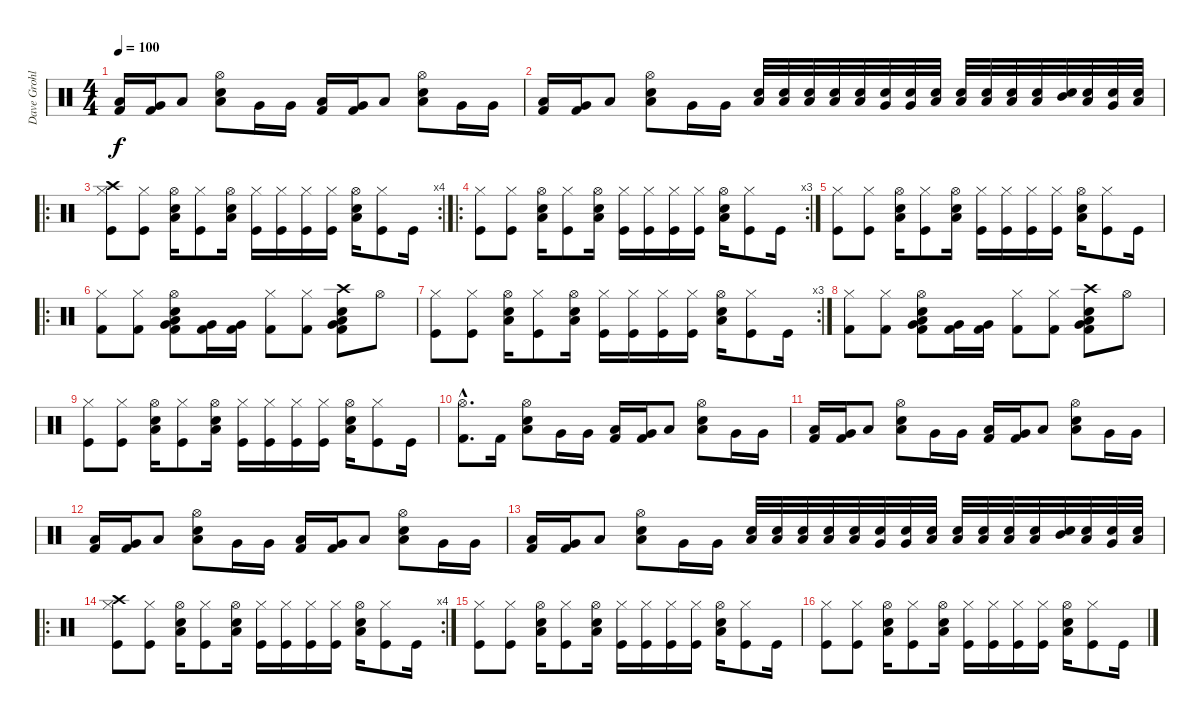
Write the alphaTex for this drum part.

\track ("Dave Grohl" "Dave Grohl") {instrument percussion}
\staff {score}
\articulation defaults
\ts (4 4)
\tempo 100
\clef neutral
\ks c
("Low Tom (hit)" "Kick (hit) 2").16{dy f} ("Very Low Tom (hit)" "Kick (hit) 2").16 "Low Floor Tom (hit)".8 ("Snare (hit) 2" "Low Tom (hit)" "Hi-Hat (open)").8 "Very Low Tom (hit)".16 "Very Low Tom (hit)".16 ("Low Tom (hit)" "Kick (hit) 2").16 ("Very Low Tom (hit)" "Kick (hit) 2").16 "Low Floor Tom (hit)".8 ("Snare (hit) 2" "Low Tom (hit)" "Hi-Hat (open)").8 "Very Low Tom (hit)".16 "Very Low Tom (hit)".16 |
("Low Tom (hit)" "Kick (hit) 2").16 ("Very Low Tom (hit)" "Kick (hit) 2").16 "Low Floor Tom (hit)".8 ("Snare (hit) 2" "Low Tom (hit)" "Hi-Hat (open)").8 "Very Low Tom (hit)".16 "Very Low Tom (hit)".16 ("Low Tom (hit)" "Snare (hit) 2").32 ("Low Tom (hit)" "Snare (hit) 2").32 ("Low Tom (hit)" "Snare (hit) 2").32 ("Low Tom (hit)" "Snare (hit) 2").32 ("Low Tom (hit)" "Snare (hit) 2").32 ("Very Low Tom (hit)" "Snare (hit) 2").32 ("Very Low Tom (hit)" "Snare (hit) 2").32 ("Low Floor Tom (hit)" "Snare (hit) 2").32 ("Low Tom (hit)" "Snare (hit) 2").32 ("Low Tom (hit)" "Snare (hit) 2").32 ("Low Tom (hit)" "Snare (hit) 2").32 ("Low Tom (hit)" "Snare (hit) 2").32 ("Mid Tom (hit)" "Snare (hit) 2").32 ("Low Tom (hit)" "Snare (hit) 2").32 ("Very Low Tom (hit)" "Snare (hit) 2").32 ("Low Floor Tom (hit)" "Snare (hit) 2").32 |
\ro
\rc 4
("Crash high (hit)" "Kick (hit)" "Hi-Hat (closed)").8 ("Kick (hit)" "Hi-Hat (closed)").8 ("Snare (hit) 2" "Low Tom (hit)" "Hi-Hat (open)").16 ("Kick (hit)" "Hi-Hat (closed)").8 ("Snare (hit) 2" "Low Tom (hit)" "Hi-Hat (open)").16 ("Kick (hit)" "Hi-Hat (closed)").16 ("Kick (hit)" "Hi-Hat (closed)").16 ("Kick (hit)" "Hi-Hat (closed)").16 ("Kick (hit)" "Hi-Hat (closed)").16 ("Snare (hit) 2" "Low Tom (hit)" "Hi-Hat (open)").16 ("Kick (hit)" "Hi-Hat (closed)").8 "Kick (hit)".16 |
\ro
\rc 3
("Kick (hit)" "Hi-Hat (closed)").8 ("Kick (hit)" "Hi-Hat (closed)").8 ("Snare (hit) 2" "Low Tom (hit)" "Hi-Hat (open)").16 ("Kick (hit)" "Hi-Hat (closed)").8 ("Snare (hit) 2" "Low Tom (hit)" "Hi-Hat (open)").16 ("Kick (hit)" "Hi-Hat (closed)").16 ("Kick (hit)" "Hi-Hat (closed)").16 ("Kick (hit)" "Hi-Hat (closed)").16 ("Kick (hit)" "Hi-Hat (closed)").16 ("Snare (hit) 2" "Low Tom (hit)" "Hi-Hat (open)").16 ("Kick (hit)" "Hi-Hat (closed)").8 "Kick (hit)".16 |
("Kick (hit)" "Hi-Hat (closed)").8 ("Kick (hit)" "Hi-Hat (closed)").8 ("Snare (hit) 2" "Low Tom (hit)" "Hi-Hat (open)").16 ("Kick (hit)" "Hi-Hat (closed)").8 ("Snare (hit) 2" "Low Tom (hit)" "Hi-Hat (open)").16 ("Kick (hit)" "Hi-Hat (closed)").16 ("Kick (hit)" "Hi-Hat (closed)").16 ("Kick (hit)" "Hi-Hat (closed)").16 ("Kick (hit)" "Hi-Hat (closed)").16 ("Snare (hit) 2" "Low Tom (hit)" "Hi-Hat (open)").16 ("Kick (hit)" "Hi-Hat (closed)").8 "Kick (hit)".16 |
\ro
("Hi-Hat (closed)" "Kick (hit) 2").8 ("Hi-Hat (closed)" "Kick (hit) 2").8 ("Snare (hit) 2" "Low Tom (hit)" "Hi-Hat (open)" "Very Low Tom (hit)" "Kick (hit) 2").8 ("Very Low Tom (hit)" "Kick (hit) 2").16 ("Very Low Tom (hit)" "Kick (hit) 2").16 ("Hi-Hat (closed)" "Kick (hit) 2").8 ("Hi-Hat (closed)" "Kick (hit) 2").8 ("Snare (hit) 2" "Low Tom (hit)" "Crash high (hit)" "Very Low Tom (hit)" "Kick (hit) 2").8 "Hi-Hat (open)".8 |
\rc 3
("Kick (hit)" "Hi-Hat (closed)").8 ("Kick (hit)" "Hi-Hat (closed)").8 ("Snare (hit) 2" "Low Tom (hit)" "Hi-Hat (open)").16 ("Kick (hit)" "Hi-Hat (closed)").8 ("Snare (hit) 2" "Low Tom (hit)" "Hi-Hat (open)").16 ("Kick (hit)" "Hi-Hat (closed)").16 ("Kick (hit)" "Hi-Hat (closed)").16 ("Kick (hit)" "Hi-Hat (closed)").16 ("Kick (hit)" "Hi-Hat (closed)").16 ("Snare (hit) 2" "Low Tom (hit)" "Hi-Hat (open)").16 ("Kick (hit)" "Hi-Hat (closed)").8 "Kick (hit)".16 |
("Hi-Hat (closed)" "Kick (hit) 2").8 ("Hi-Hat (closed)" "Kick (hit) 2").8 ("Snare (hit) 2" "Low Tom (hit)" "Hi-Hat (open)" "Very Low Tom (hit)" "Kick (hit) 2").8 ("Very Low Tom (hit)" "Kick (hit) 2").16 ("Very Low Tom (hit)" "Kick (hit) 2").16 ("Hi-Hat (closed)" "Kick (hit) 2").8 ("Hi-Hat (closed)" "Kick (hit) 2").8 ("Snare (hit) 2" "Low Tom (hit)" "Crash high (hit)" "Very Low Tom (hit)" "Kick (hit) 2").8 "Hi-Hat (open)".8 |
("Kick (hit)" "Hi-Hat (closed)").8 ("Kick (hit)" "Hi-Hat (closed)").8 ("Snare (hit) 2" "Low Tom (hit)" "Hi-Hat (open)").16 ("Kick (hit)" "Hi-Hat (closed)").8 ("Snare (hit) 2" "Low Tom (hit)" "Hi-Hat (open)").16 ("Kick (hit)" "Hi-Hat (closed)").16 ("Kick (hit)" "Hi-Hat (closed)").16 ("Kick (hit)" "Hi-Hat (closed)").16 ("Kick (hit)" "Hi-Hat (closed)").16 ("Snare (hit) 2" "Low Tom (hit)" "Hi-Hat (open)").16 ("Kick (hit)" "Hi-Hat (closed)").8 "Kick (hit)".16 |
("Hi-Hat (open)"{hac} "Kick (hit) 2"{hac}).8{d} "Kick (hit) 2".16 ("Snare (hit) 2" "Low Tom (hit)" "Hi-Hat (open)").8 "Very Low Tom (hit)".16 "Very Low Tom (hit)".16 ("Low Tom (hit)" "Kick (hit) 2").16 ("Very Low Tom (hit)" "Kick (hit) 2").16 "Low Floor Tom (hit)".8 ("Snare (hit) 2" "Low Tom (hit)" "Hi-Hat (open)").8 "Very Low Tom (hit)".16 "Very Low Tom (hit)".16 |
("Low Tom (hit)" "Kick (hit) 2").16 ("Very Low Tom (hit)" "Kick (hit) 2").16 "Low Floor Tom (hit)".8 ("Snare (hit) 2" "Low Tom (hit)" "Hi-Hat (open)").8 "Very Low Tom (hit)".16 "Very Low Tom (hit)".16 ("Low Tom (hit)" "Kick (hit) 2").16 ("Very Low Tom (hit)" "Kick (hit) 2").16 "Low Floor Tom (hit)".8 ("Snare (hit) 2" "Low Tom (hit)" "Hi-Hat (open)").8 "Very Low Tom (hit)".16 "Very Low Tom (hit)".16 |
("Low Tom (hit)" "Kick (hit) 2").16 ("Very Low Tom (hit)" "Kick (hit) 2").16 "Low Floor Tom (hit)".8 ("Snare (hit) 2" "Low Tom (hit)" "Hi-Hat (open)").8 "Very Low Tom (hit)".16 "Very Low Tom (hit)".16 ("Low Tom (hit)" "Kick (hit) 2").16 ("Very Low Tom (hit)" "Kick (hit) 2").16 "Low Floor Tom (hit)".8 ("Snare (hit) 2" "Low Tom (hit)" "Hi-Hat (open)").8 "Very Low Tom (hit)".16 "Very Low Tom (hit)".16 |
("Low Tom (hit)" "Kick (hit) 2").16 ("Very Low Tom (hit)" "Kick (hit) 2").16 "Low Floor Tom (hit)".8 ("Snare (hit) 2" "Low Tom (hit)" "Hi-Hat (open)").8 "Very Low Tom (hit)".16 "Very Low Tom (hit)".16 ("Low Tom (hit)" "Snare (hit) 2").32 ("Low Tom (hit)" "Snare (hit) 2").32 ("Low Tom (hit)" "Snare (hit) 2").32 ("Low Tom (hit)" "Snare (hit) 2").32 ("Low Tom (hit)" "Snare (hit) 2").32 ("Very Low Tom (hit)" "Snare (hit) 2").32 ("Very Low Tom (hit)" "Snare (hit) 2").32 ("Low Floor Tom (hit)" "Snare (hit) 2").32 ("Low Tom (hit)" "Snare (hit) 2").32 ("Low Tom (hit)" "Snare (hit) 2").32 ("Low Tom (hit)" "Snare (hit) 2").32 ("Low Tom (hit)" "Snare (hit) 2").32 ("Mid Tom (hit)" "Snare (hit) 2").32 ("Low Tom (hit)" "Snare (hit) 2").32 ("Very Low Tom (hit)" "Snare (hit) 2").32 ("Low Floor Tom (hit)" "Snare (hit) 2").32 |
\ro
\rc 4
("Crash high (hit)" "Kick (hit)" "Hi-Hat (closed)").8 ("Kick (hit)" "Hi-Hat (closed)").8 ("Snare (hit) 2" "Low Tom (hit)" "Hi-Hat (open)").16 ("Kick (hit)" "Hi-Hat (closed)").8 ("Snare (hit) 2" "Low Tom (hit)" "Hi-Hat (open)").16 ("Kick (hit)" "Hi-Hat (closed)").16 ("Kick (hit)" "Hi-Hat (closed)").16 ("Kick (hit)" "Hi-Hat (closed)").16 ("Kick (hit)" "Hi-Hat (closed)").16 ("Snare (hit) 2" "Low Tom (hit)" "Hi-Hat (open)").16 ("Kick (hit)" "Hi-Hat (closed)").8 "Kick (hit)".16 |
("Kick (hit)" "Hi-Hat (closed)").8 ("Kick (hit)" "Hi-Hat (closed)").8 ("Snare (hit) 2" "Low Tom (hit)" "Hi-Hat (open)").16 ("Kick (hit)" "Hi-Hat (closed)").8 ("Snare (hit) 2" "Low Tom (hit)" "Hi-Hat (open)").16 ("Kick (hit)" "Hi-Hat (closed)").16 ("Kick (hit)" "Hi-Hat (closed)").16 ("Kick (hit)" "Hi-Hat (closed)").16 ("Kick (hit)" "Hi-Hat (closed)").16 ("Snare (hit) 2" "Low Tom (hit)" "Hi-Hat (open)").16 ("Kick (hit)" "Hi-Hat (closed)").8 "Kick (hit)".16 |
("Kick (hit)" "Hi-Hat (closed)").8 ("Kick (hit)" "Hi-Hat (closed)").8 ("Snare (hit) 2" "Low Tom (hit)" "Hi-Hat (open)").16 ("Kick (hit)" "Hi-Hat (closed)").8 ("Snare (hit) 2" "Low Tom (hit)" "Hi-Hat (open)").16 ("Kick (hit)" "Hi-Hat (closed)").16 ("Kick (hit)" "Hi-Hat (closed)").16 ("Kick (hit)" "Hi-Hat (closed)").16 ("Kick (hit)" "Hi-Hat (closed)").16 ("Snare (hit) 2" "Low Tom (hit)" "Hi-Hat (open)").16 ("Kick (hit)" "Hi-Hat (closed)").8 "Kick (hit)".16
